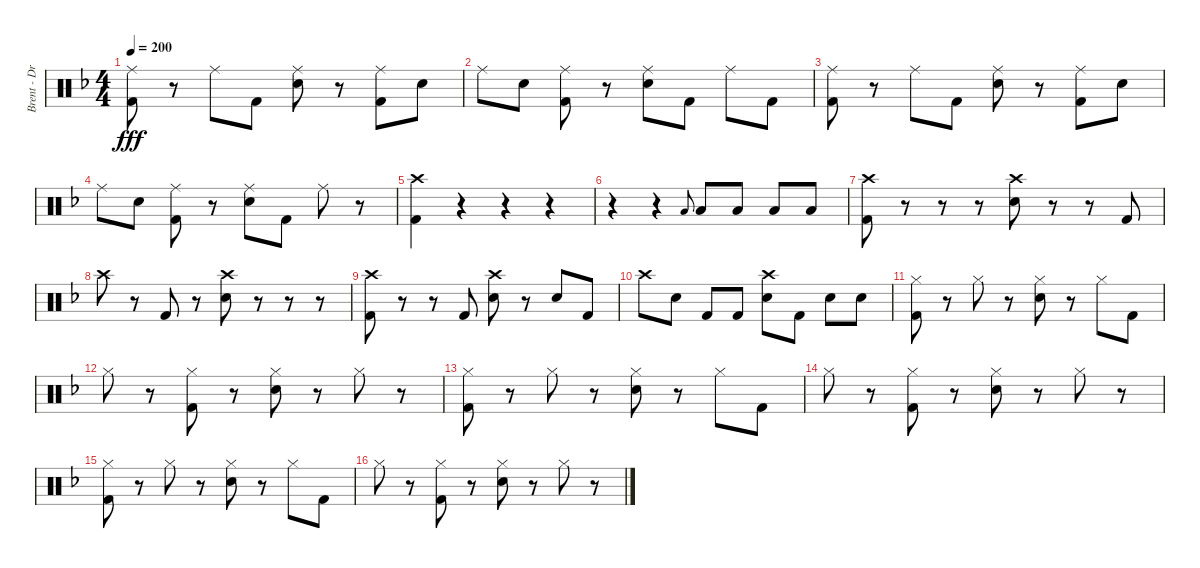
\track ("Brent - Drums" "Brent - Dr") {instrument percussion}
\staff {score}
\articulation defaults
\ts (4 4)
\tempo 200
\clef neutral
\ks dminor
("Ride (middle)" "Kick (hit) 2").8{dy fff} r.8 "Ride (middle)".8 "Kick (hit) 2".8 ("Ride (middle)" "Snare (hit) 2").8 r.8 ("Ride (middle)" "Kick (hit) 2").8 "Snare (hit) 2".8 |
"Ride (middle)".8 "Snare (hit) 2".8 ("Ride (middle)" "Kick (hit) 2").8 r.8 ("Ride (middle)" "Snare (hit) 2").8 "Kick (hit) 2".8 "Ride (middle)".8 "Kick (hit) 2".8 |
("Ride (middle)" "Kick (hit) 2").8 r.8 "Ride (middle)".8 "Kick (hit) 2".8 ("Ride (middle)" "Snare (hit) 2").8 r.8 ("Ride (middle)" "Kick (hit) 2").8 "Snare (hit) 2".8 |
"Ride (middle)".8 "Snare (hit) 2".8 ("Ride (middle)" "Kick (hit) 2").8 r.8 ("Ride (middle)" "Snare (hit) 2").8 "Kick (hit) 2".8 "Ride (middle)".8 r.8 |
("Crash high (hit)" "Kick (hit) 2").4 r.4 r.4 r.4 |
r.4 r.4 "Low Tom (hit)".8{gr onbeat} "Low Tom (hit)".8 "Low Tom (hit)".8 "Low Floor Tom (hit)".8 "Low Floor Tom (hit)".8 |
("Crash high (hit)" "Kick (hit) 2").8 r.8 r.8 r.8 ("Crash high (hit)" "Snare (hit) 2").8 r.8 r.8 "Kick (hit) 2".8 |
"Crash high (hit)".8 r.8 "Kick (hit) 2".8 r.8 ("Crash high (hit)" "Snare (hit) 2").8 r.8 r.8 r.8 |
("Crash high (hit)" "Kick (hit) 2").8 r.8 r.8 "Kick (hit) 2".8 ("Crash high (hit)" "Snare (hit) 2").8 r.8 "Snare (hit) 2".8 "Kick (hit) 2".8 |
"Crash high (hit)".8 "Snare (hit) 2".8 "Kick (hit) 2".8 "Kick (hit) 2".8 ("Crash high (hit)" "Snare (hit) 2").8 "Kick (hit) 2".8 "Snare (hit) 2".8 "Snare (hit) 2".8 |
("Hi-Hat (closed)" "Kick (hit) 2").8 r.8 "Hi-Hat (closed)".8 r.8 ("Hi-Hat (closed)" "Snare (hit) 2").8 r.8 "Hi-Hat (closed)".8 "Kick (hit) 2".8 |
"Hi-Hat (closed)".8 r.8 ("Hi-Hat (closed)" "Kick (hit) 2").8 r.8 ("Hi-Hat (closed)" "Snare (hit) 2").8 r.8 "Hi-Hat (closed)".8 r.8 |
("Hi-Hat (closed)" "Kick (hit) 2").8 r.8 "Hi-Hat (closed)".8 r.8 ("Hi-Hat (closed)" "Snare (hit) 2").8 r.8 "Hi-Hat (closed)".8 "Kick (hit) 2".8 |
"Hi-Hat (closed)".8 r.8 ("Hi-Hat (closed)" "Kick (hit) 2").8 r.8 ("Hi-Hat (closed)" "Snare (hit) 2").8 r.8 "Hi-Hat (closed)".8 r.8 |
("Hi-Hat (closed)" "Kick (hit) 2").8 r.8 "Hi-Hat (closed)".8 r.8 ("Hi-Hat (closed)" "Snare (hit) 2").8 r.8 "Hi-Hat (closed)".8 "Kick (hit) 2".8 |
"Hi-Hat (closed)".8 r.8 ("Hi-Hat (closed)" "Kick (hit) 2").8 r.8 ("Hi-Hat (closed)" "Snare (hit) 2").8 r.8 "Hi-Hat (closed)".8 r.8
